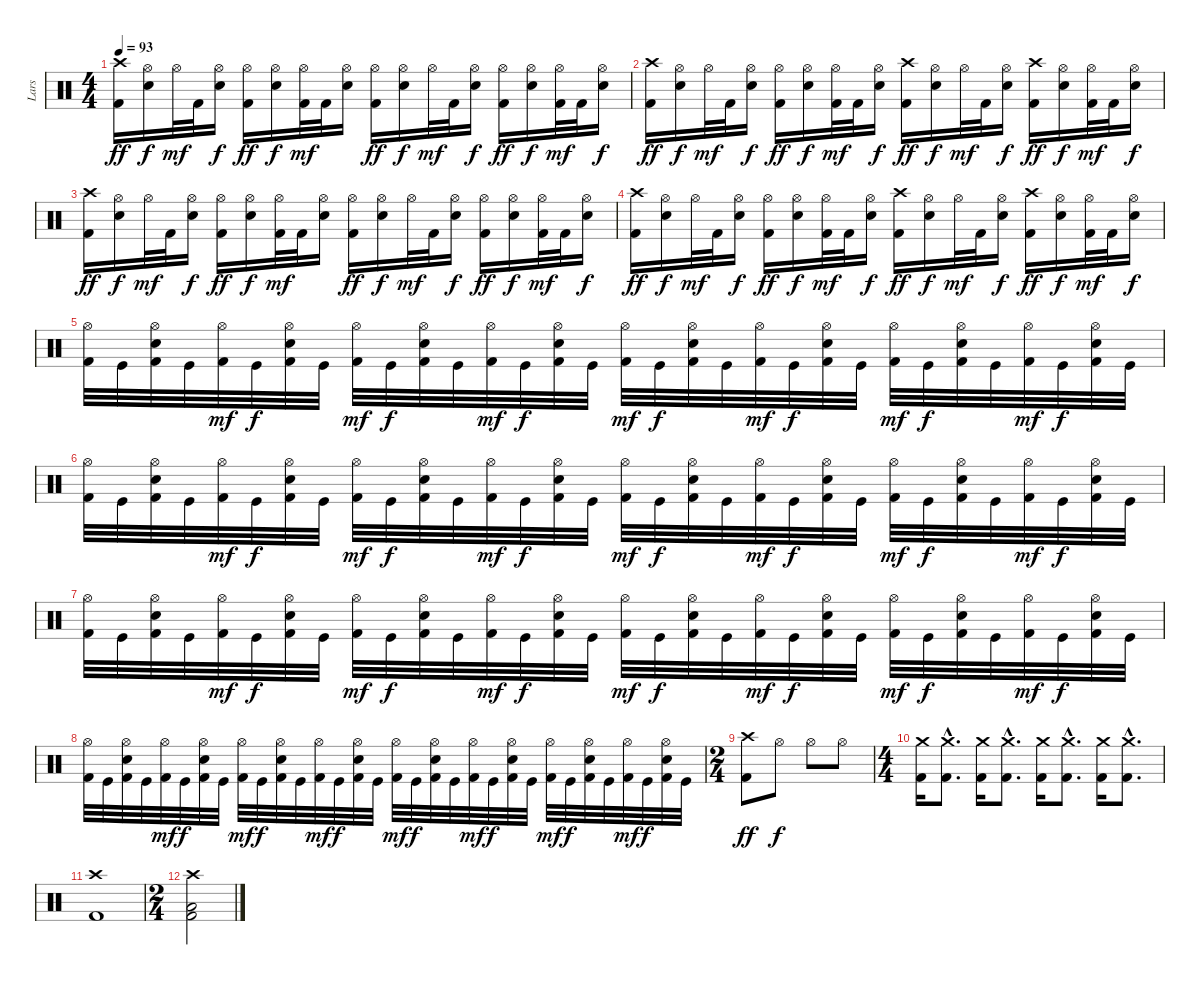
\track ("Lars" "Lars") {instrument percussion}
\staff {score}
\articulation defaults
\ts (4 4)
\tempo 93
\clef neutral
\ks c
("Crash high (hit)" "Kick (hit) 2").16{dy ff} ("Hi-Hat (open)" "Snare (hit) 2").16{dy f} "Hi-Hat (open)".32{dy mf} "Kick (hit) 2".32 ("Hi-Hat (open)" "Snare (hit) 2").16{dy f} ("Hi-Hat (open)" "Kick (hit) 2").16{dy ff} ("Hi-Hat (open)" "Snare (hit) 2").16{dy f} ("Hi-Hat (open)" "Kick (hit) 2").32{dy mf} "Kick (hit) 2".32 ("Hi-Hat (open)" "Snare (hit) 2").16 ("Hi-Hat (open)" "Kick (hit) 2").16{dy ff} ("Hi-Hat (open)" "Snare (hit) 2").16{dy f} "Hi-Hat (open)".32{dy mf} "Kick (hit) 2".32 ("Hi-Hat (open)" "Snare (hit) 2").16{dy f} ("Hi-Hat (open)" "Kick (hit) 2").16{dy ff} ("Hi-Hat (open)" "Snare (hit) 2").16{dy f} ("Hi-Hat (open)" "Kick (hit) 2").32{dy mf} "Kick (hit) 2".32 ("Hi-Hat (open)" "Snare (hit) 2").16{dy f} |
("Crash high (hit)" "Kick (hit) 2").16{dy ff} ("Hi-Hat (open)" "Snare (hit) 2").16{dy f} "Hi-Hat (open)".32{dy mf} "Kick (hit) 2".32 ("Hi-Hat (open)" "Snare (hit) 2").16{dy f} ("Hi-Hat (open)" "Kick (hit) 2").16{dy ff} ("Hi-Hat (open)" "Snare (hit) 2").16{dy f} ("Hi-Hat (open)" "Kick (hit) 2").32{dy mf} "Kick (hit) 2".32 ("Hi-Hat (open)" "Snare (hit) 2").16{dy f} ("Crash high (hit)" "Kick (hit) 2").16{dy ff} ("Hi-Hat (open)" "Snare (hit) 2").16{dy f} "Hi-Hat (open)".32{dy mf} "Kick (hit) 2".32 ("Hi-Hat (open)" "Snare (hit) 2").16{dy f} ("Crash high (hit)" "Kick (hit) 2").16{dy ff} ("Hi-Hat (open)" "Snare (hit) 2").16{dy f} ("Hi-Hat (open)" "Kick (hit) 2").32{dy mf} "Kick (hit) 2".32 ("Hi-Hat (open)" "Snare (hit) 2").16{dy f} |
("Crash high (hit)" "Kick (hit) 2").16{dy ff} ("Hi-Hat (open)" "Snare (hit) 2").16{dy f} "Hi-Hat (open)".32{dy mf} "Kick (hit) 2".32 ("Hi-Hat (open)" "Snare (hit) 2").16{dy f} ("Hi-Hat (open)" "Kick (hit) 2").16{dy ff} ("Hi-Hat (open)" "Snare (hit) 2").16{dy f} ("Hi-Hat (open)" "Kick (hit) 2").32{dy mf} "Kick (hit) 2".32 ("Hi-Hat (open)" "Snare (hit) 2").16 ("Hi-Hat (open)" "Kick (hit) 2").16{dy ff} ("Hi-Hat (open)" "Snare (hit) 2").16{dy f} "Hi-Hat (open)".32{dy mf} "Kick (hit) 2".32 ("Hi-Hat (open)" "Snare (hit) 2").16{dy f} ("Hi-Hat (open)" "Kick (hit) 2").16{dy ff} ("Hi-Hat (open)" "Snare (hit) 2").16{dy f} ("Hi-Hat (open)" "Kick (hit) 2").32{dy mf} "Kick (hit) 2".32 ("Hi-Hat (open)" "Snare (hit) 2").16{dy f} |
("Crash high (hit)" "Kick (hit) 2").16{dy ff} ("Hi-Hat (open)" "Snare (hit) 2").16{dy f} "Hi-Hat (open)".32{dy mf} "Kick (hit) 2".32 ("Hi-Hat (open)" "Snare (hit) 2").16{dy f} ("Hi-Hat (open)" "Kick (hit) 2").16{dy ff} ("Hi-Hat (open)" "Snare (hit) 2").16{dy f} ("Hi-Hat (open)" "Kick (hit) 2").32{dy mf} "Kick (hit) 2".32 ("Hi-Hat (open)" "Snare (hit) 2").16{dy f} ("Crash high (hit)" "Kick (hit) 2").16{dy ff} ("Hi-Hat (open)" "Snare (hit) 2").16{dy f} "Hi-Hat (open)".32{dy mf} "Kick (hit) 2".32 ("Hi-Hat (open)" "Snare (hit) 2").16{dy f} ("Crash high (hit)" "Kick (hit) 2").16{dy ff} ("Hi-Hat (open)" "Snare (hit) 2").16{dy f} ("Hi-Hat (open)" "Kick (hit) 2").32{dy mf} "Kick (hit) 2".32 ("Hi-Hat (open)" "Snare (hit) 2").16{dy f} |
("Hi-Hat (open)" "Kick (hit) 2").32 "Kick (hit)".32 ("Hi-Hat (open)" "Snare (hit) 2" "Kick (hit) 2").32 "Kick (hit)".32 ("Hi-Hat (open)" "Kick (hit) 2").32{dy mf} "Kick (hit)".32{dy f} ("Hi-Hat (open)" "Snare (hit) 2" "Kick (hit) 2").32 "Kick (hit)".32 ("Hi-Hat (open)" "Kick (hit) 2").32{dy mf} "Kick (hit)".32{dy f} ("Hi-Hat (open)" "Snare (hit) 2" "Kick (hit) 2").32 "Kick (hit)".32 ("Hi-Hat (open)" "Kick (hit) 2").32{dy mf} "Kick (hit)".32{dy f} ("Hi-Hat (open)" "Snare (hit) 2" "Kick (hit) 2").32 "Kick (hit)".32 ("Hi-Hat (open)" "Kick (hit) 2").32{dy mf} "Kick (hit)".32{dy f} ("Hi-Hat (open)" "Snare (hit) 2" "Kick (hit) 2").32 "Kick (hit)".32 ("Hi-Hat (open)" "Kick (hit) 2").32{dy mf} "Kick (hit)".32{dy f} ("Hi-Hat (open)" "Snare (hit) 2" "Kick (hit) 2").32 "Kick (hit)".32 ("Hi-Hat (open)" "Kick (hit) 2").32{dy mf} "Kick (hit)".32{dy f} ("Hi-Hat (open)" "Snare (hit) 2" "Kick (hit) 2").32 "Kick (hit)".32 ("Hi-Hat (open)" "Kick (hit) 2").32{dy mf} "Kick (hit)".32{dy f} ("Hi-Hat (open)" "Snare (hit) 2" "Kick (hit) 2").32 "Kick (hit)".32 |
("Hi-Hat (open)" "Kick (hit) 2").32 "Kick (hit)".32 ("Hi-Hat (open)" "Snare (hit) 2" "Kick (hit) 2").32 "Kick (hit)".32 ("Hi-Hat (open)" "Kick (hit) 2").32{dy mf} "Kick (hit)".32{dy f} ("Hi-Hat (open)" "Snare (hit) 2" "Kick (hit) 2").32 "Kick (hit)".32 ("Hi-Hat (open)" "Kick (hit) 2").32{dy mf} "Kick (hit)".32{dy f} ("Hi-Hat (open)" "Snare (hit) 2" "Kick (hit) 2").32 "Kick (hit)".32 ("Hi-Hat (open)" "Kick (hit) 2").32{dy mf} "Kick (hit)".32{dy f} ("Hi-Hat (open)" "Snare (hit) 2" "Kick (hit) 2").32 "Kick (hit)".32 ("Hi-Hat (open)" "Kick (hit) 2").32{dy mf} "Kick (hit)".32{dy f} ("Hi-Hat (open)" "Snare (hit) 2" "Kick (hit) 2").32 "Kick (hit)".32 ("Hi-Hat (open)" "Kick (hit) 2").32{dy mf} "Kick (hit)".32{dy f} ("Hi-Hat (open)" "Snare (hit) 2" "Kick (hit) 2").32 "Kick (hit)".32 ("Hi-Hat (open)" "Kick (hit) 2").32{dy mf} "Kick (hit)".32{dy f} ("Hi-Hat (open)" "Snare (hit) 2" "Kick (hit) 2").32 "Kick (hit)".32 ("Hi-Hat (open)" "Kick (hit) 2").32{dy mf} "Kick (hit)".32{dy f} ("Hi-Hat (open)" "Snare (hit) 2" "Kick (hit) 2").32 "Kick (hit)".32 |
("Hi-Hat (open)" "Kick (hit) 2").32 "Kick (hit)".32 ("Hi-Hat (open)" "Snare (hit) 2" "Kick (hit) 2").32 "Kick (hit)".32 ("Hi-Hat (open)" "Kick (hit) 2").32{dy mf} "Kick (hit)".32{dy f} ("Hi-Hat (open)" "Snare (hit) 2" "Kick (hit) 2").32 "Kick (hit)".32 ("Hi-Hat (open)" "Kick (hit) 2").32{dy mf} "Kick (hit)".32{dy f} ("Hi-Hat (open)" "Snare (hit) 2" "Kick (hit) 2").32 "Kick (hit)".32 ("Hi-Hat (open)" "Kick (hit) 2").32{dy mf} "Kick (hit)".32{dy f} ("Hi-Hat (open)" "Snare (hit) 2" "Kick (hit) 2").32 "Kick (hit)".32 ("Hi-Hat (open)" "Kick (hit) 2").32{dy mf} "Kick (hit)".32{dy f} ("Hi-Hat (open)" "Snare (hit) 2" "Kick (hit) 2").32 "Kick (hit)".32 ("Hi-Hat (open)" "Kick (hit) 2").32{dy mf} "Kick (hit)".32{dy f} ("Hi-Hat (open)" "Snare (hit) 2" "Kick (hit) 2").32 "Kick (hit)".32 ("Hi-Hat (open)" "Kick (hit) 2").32{dy mf} "Kick (hit)".32{dy f} ("Hi-Hat (open)" "Snare (hit) 2" "Kick (hit) 2").32 "Kick (hit)".32 ("Hi-Hat (open)" "Kick (hit) 2").32{dy mf} "Kick (hit)".32{dy f} ("Hi-Hat (open)" "Snare (hit) 2" "Kick (hit) 2").32 "Kick (hit)".32 |
("Hi-Hat (open)" "Kick (hit) 2").32 "Kick (hit)".32 ("Hi-Hat (open)" "Snare (hit) 2" "Kick (hit) 2").32 "Kick (hit)".32 ("Hi-Hat (open)" "Kick (hit) 2").32{dy mf} "Kick (hit)".32{dy f} ("Hi-Hat (open)" "Snare (hit) 2" "Kick (hit) 2").32 "Kick (hit)".32 ("Hi-Hat (open)" "Kick (hit) 2").32{dy mf} "Kick (hit)".32{dy f} ("Hi-Hat (open)" "Snare (hit) 2" "Kick (hit) 2").32 "Kick (hit)".32 ("Hi-Hat (open)" "Kick (hit) 2").32{dy mf} "Kick (hit)".32{dy f} ("Hi-Hat (open)" "Snare (hit) 2" "Kick (hit) 2").32 "Kick (hit)".32 ("Hi-Hat (open)" "Kick (hit) 2").32{dy mf} "Kick (hit)".32{dy f} ("Hi-Hat (open)" "Snare (hit) 2" "Kick (hit) 2").32 "Kick (hit)".32 ("Hi-Hat (open)" "Kick (hit) 2").32{dy mf} "Kick (hit)".32{dy f} ("Hi-Hat (open)" "Snare (hit) 2" "Kick (hit) 2").32 "Kick (hit)".32 ("Hi-Hat (open)" "Kick (hit) 2").32{dy mf} "Kick (hit)".32{dy f} ("Hi-Hat (open)" "Snare (hit) 2" "Kick (hit) 2").32 "Kick (hit)".32 ("Hi-Hat (open)" "Kick (hit) 2").32{dy mf} "Kick (hit)".32{dy f} ("Hi-Hat (open)" "Snare (hit) 2" "Kick (hit) 2").32 "Kick (hit)".32 |
\ts (2 4)
("Crash high (hit)" "Kick (hit) 2").8{dy ff} "Hi-Hat (open)".8{dy f} "Hi-Hat (open)".8 "Hi-Hat (open)".8 |
\ts (4 4)
("Crash medium (hit)" "Kick (hit) 2").16 ("Crash medium (hit)"{hac} "Kick (hit) 2"{hac}).8{d} ("Crash medium (hit)" "Kick (hit) 2").16 ("Crash medium (hit)"{hac} "Kick (hit) 2"{hac}).8{d} ("Crash medium (hit)" "Kick (hit) 2").16 ("Crash medium (hit)"{hac} "Kick (hit) 2"{hac}).8{d} ("Crash medium (hit)" "Kick (hit) 2").16 ("Crash medium (hit)"{hac} "Kick (hit) 2"{hac}).8{d} |
("Crash high (hit)" "Kick (hit) 2").1 |
\ts (2 4)
("Crash high (hit)" "Low Floor Tom (hit)" "Kick (hit) 2").2
